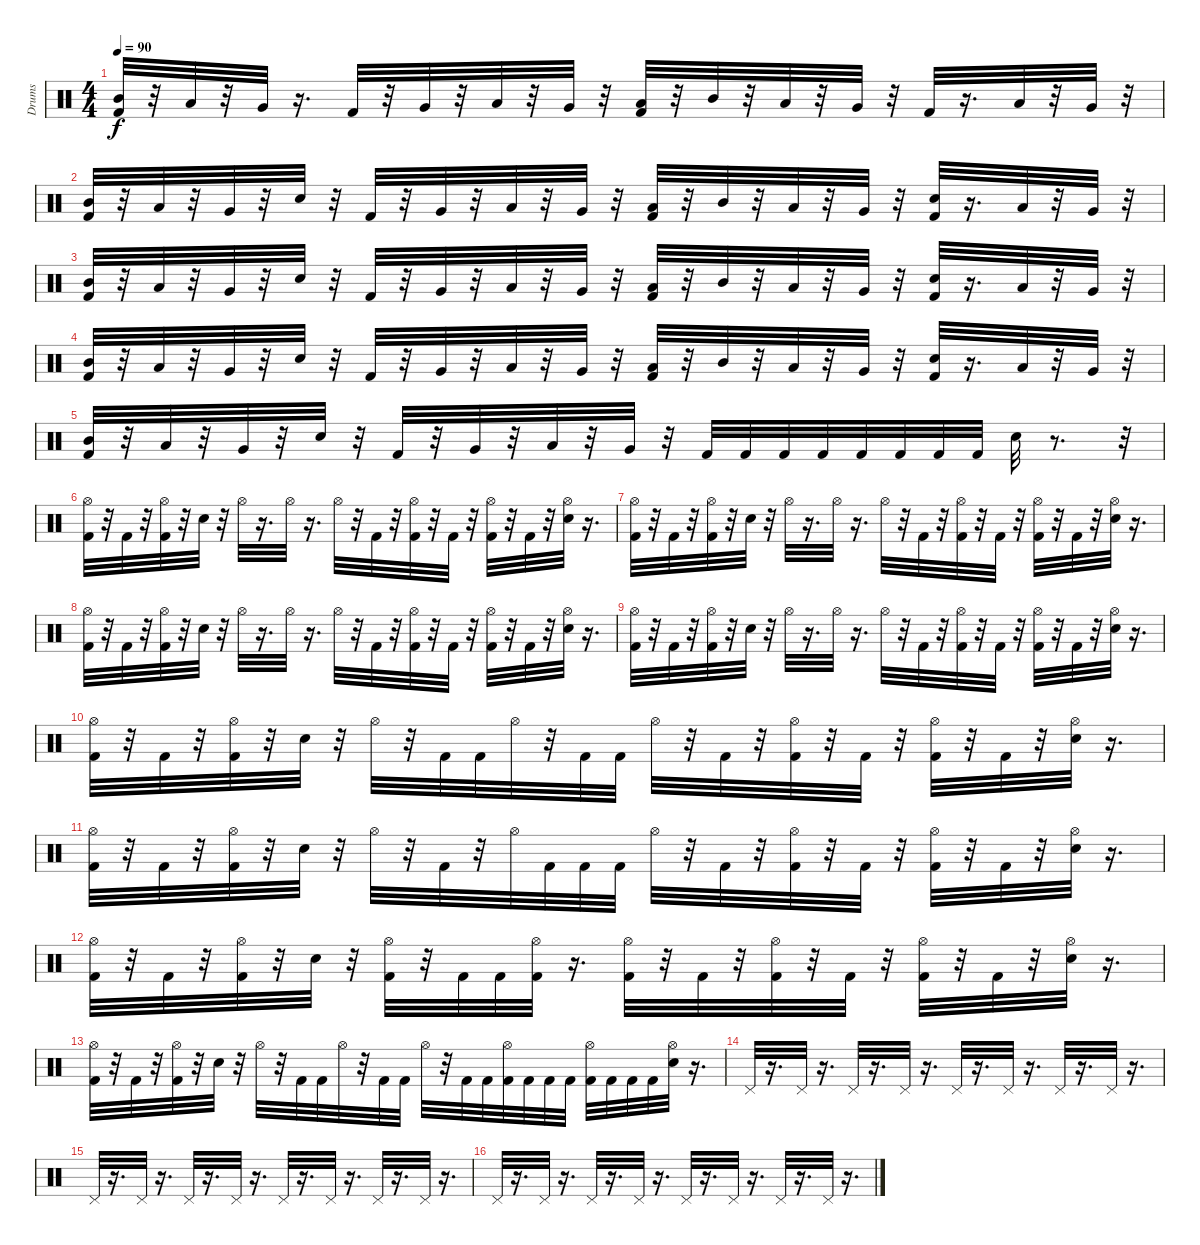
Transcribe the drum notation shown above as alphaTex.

\track ("Drums" "Drums") {instrument percussion}
\staff {score}
\articulation defaults
\ts (4 4)
\tempo 90
\clef neutral
\ks c
("Kick (hit) 2" "Mid Tom (hit)").32{dy f} r.32 "Low Tom (hit)".32 r.32 "Very Low Tom (hit)".32 r.16{d} "Kick (hit) 2".32 r.32 "Very Low Tom (hit)".32 r.32 "Low Tom (hit)".32 r.32 "Very Low Tom (hit)".32 r.32 ("Kick (hit) 2" "Low Tom (hit)").32 r.32 "Mid Tom (hit)".32 r.32 "Low Floor Tom (hit)".32 r.32 "Very Low Tom (hit)".32 r.32 "Kick (hit) 2".32 r.16{d} "Low Floor Tom (hit)".32 r.32 "Very Low Tom (hit)".32 r.32 |
("Kick (hit) 2" "Mid Tom (hit)").32 r.32 "Low Tom (hit)".32 r.32 "Very Low Tom (hit)".32 r.32 "Snare (hit) 2".32 r.32 "Kick (hit) 2".32 r.32 "Very Low Tom (hit)".32 r.32 "Low Tom (hit)".32 r.32 "Very Low Tom (hit)".32 r.32 ("Kick (hit) 2" "Low Tom (hit)").32 r.32 "Mid Tom (hit)".32 r.32 "Low Floor Tom (hit)".32 r.32 "Very Low Tom (hit)".32 r.32 ("Kick (hit) 2" "Snare (hit) 2").32 r.16{d} "Low Floor Tom (hit)".32 r.32 "Very Low Tom (hit)".32 r.32 |
("Kick (hit) 2" "Mid Tom (hit)").32 r.32 "Low Tom (hit)".32 r.32 "Very Low Tom (hit)".32 r.32 "Snare (hit) 2".32 r.32 "Kick (hit) 2".32 r.32 "Very Low Tom (hit)".32 r.32 "Low Tom (hit)".32 r.32 "Very Low Tom (hit)".32 r.32 ("Kick (hit) 2" "Low Tom (hit)").32 r.32 "Mid Tom (hit)".32 r.32 "Low Floor Tom (hit)".32 r.32 "Very Low Tom (hit)".32 r.32 ("Kick (hit) 2" "Snare (hit) 2").32 r.16{d} "Low Floor Tom (hit)".32 r.32 "Very Low Tom (hit)".32 r.32 |
("Kick (hit) 2" "Mid Tom (hit)").32 r.32 "Low Tom (hit)".32 r.32 "Very Low Tom (hit)".32 r.32 "Snare (hit) 2".32 r.32 "Kick (hit) 2".32 r.32 "Very Low Tom (hit)".32 r.32 "Low Tom (hit)".32 r.32 "Very Low Tom (hit)".32 r.32 ("Kick (hit) 2" "Low Tom (hit)").32 r.32 "Mid Tom (hit)".32 r.32 "Low Floor Tom (hit)".32 r.32 "Very Low Tom (hit)".32 r.32 ("Kick (hit) 2" "Snare (hit) 2").32 r.16{d} "Low Floor Tom (hit)".32 r.32 "Very Low Tom (hit)".32 r.32 |
("Kick (hit) 2" "Mid Tom (hit)").32 r.32 "Low Tom (hit)".32 r.32 "Very Low Tom (hit)".32 r.32 "Snare (hit) 2".32 r.32 "Kick (hit) 2".32 r.32 "Very Low Tom (hit)".32 r.32 "Low Tom (hit)".32 r.32 "Very Low Tom (hit)".32 r.32 "Kick (hit) 2".32 "Kick (hit) 2".32 "Kick (hit) 2".32 "Kick (hit) 2".32 "Kick (hit) 2".32 "Kick (hit) 2".32 "Kick (hit) 2".32 "Kick (hit) 2".32 "Electric Snare (hit)".32 r.8{d} r.32 |
("Kick (hit) 2" "Hi-Hat (open)").32 r.32 "Kick (hit) 2".32 r.32 ("Kick (hit) 2" "Hi-Hat (open)").32 r.32 "Snare (hit) 2".32 r.32 "Hi-Hat (open)".32 r.16{d} "Hi-Hat (open)".32 r.16{d} "Hi-Hat (open)".32 r.32 "Kick (hit) 2".32 r.32 ("Kick (hit) 2" "Hi-Hat (open)").32 r.32 "Kick (hit) 2".32 r.32 ("Kick (hit) 2" "Hi-Hat (open)").32 r.32 "Kick (hit) 2".32 r.32 ("Snare (hit) 2" "Hi-Hat (open)").32 r.16{d} |
("Kick (hit) 2" "Hi-Hat (open)").32 r.32 "Kick (hit) 2".32 r.32 ("Kick (hit) 2" "Hi-Hat (open)").32 r.32 "Snare (hit) 2".32 r.32 "Hi-Hat (open)".32 r.16{d} "Hi-Hat (open)".32 r.16{d} "Hi-Hat (open)".32 r.32 "Kick (hit) 2".32 r.32 ("Kick (hit) 2" "Hi-Hat (open)").32 r.32 "Kick (hit) 2".32 r.32 ("Kick (hit) 2" "Hi-Hat (open)").32 r.32 "Kick (hit) 2".32 r.32 ("Snare (hit) 2" "Hi-Hat (open)").32 r.16{d} |
("Kick (hit) 2" "Hi-Hat (open)").32 r.32 "Kick (hit) 2".32 r.32 ("Kick (hit) 2" "Hi-Hat (open)").32 r.32 "Snare (hit) 2".32 r.32 "Hi-Hat (open)".32 r.16{d} "Hi-Hat (open)".32 r.16{d} "Hi-Hat (open)".32 r.32 "Kick (hit) 2".32 r.32 ("Kick (hit) 2" "Hi-Hat (open)").32 r.32 "Kick (hit) 2".32 r.32 ("Kick (hit) 2" "Hi-Hat (open)").32 r.32 "Kick (hit) 2".32 r.32 ("Snare (hit) 2" "Hi-Hat (open)").32 r.16{d} |
("Kick (hit) 2" "Hi-Hat (open)").32 r.32 "Kick (hit) 2".32 r.32 ("Kick (hit) 2" "Hi-Hat (open)").32 r.32 "Snare (hit) 2".32 r.32 "Hi-Hat (open)".32 r.16{d} "Hi-Hat (open)".32 r.16{d} "Hi-Hat (open)".32 r.32 "Kick (hit) 2".32 r.32 ("Kick (hit) 2" "Hi-Hat (open)").32 r.32 "Kick (hit) 2".32 r.32 ("Kick (hit) 2" "Hi-Hat (open)").32 r.32 "Kick (hit) 2".32 r.32 ("Snare (hit) 2" "Hi-Hat (open)").32 r.16{d} |
("Kick (hit) 2" "Hi-Hat (open)").32 r.32 "Kick (hit) 2".32 r.32 ("Kick (hit) 2" "Hi-Hat (open)").32 r.32 "Snare (hit) 2".32 r.32 "Hi-Hat (open)".32 r.32 "Kick (hit) 2".32 "Kick (hit) 2".32 "Hi-Hat (open)".32 r.32 "Kick (hit) 2".32 "Kick (hit) 2".32 "Hi-Hat (open)".32 r.32 "Kick (hit) 2".32 r.32 ("Kick (hit) 2" "Hi-Hat (open)").32 r.32 "Kick (hit) 2".32 r.32 ("Kick (hit) 2" "Hi-Hat (open)").32 r.32 "Kick (hit) 2".32 r.32 ("Snare (hit) 2" "Hi-Hat (open)").32 r.16{d} |
("Kick (hit) 2" "Hi-Hat (open)").32 r.32 "Kick (hit) 2".32 r.32 ("Kick (hit) 2" "Hi-Hat (open)").32 r.32 "Snare (hit) 2".32 r.32 "Hi-Hat (open)".32 r.32 "Kick (hit) 2".32 r.32 "Hi-Hat (open)".32 "Kick (hit) 2".32 "Kick (hit) 2".32 "Kick (hit) 2".32 "Hi-Hat (open)".32 r.32 "Kick (hit) 2".32 r.32 ("Kick (hit) 2" "Hi-Hat (open)").32 r.32 "Kick (hit) 2".32 r.32 ("Kick (hit) 2" "Hi-Hat (open)").32 r.32 "Kick (hit) 2".32 r.32 ("Snare (hit) 2" "Hi-Hat (open)").32 r.16{d} |
("Kick (hit) 2" "Hi-Hat (open)").32 r.32 "Kick (hit) 2".32 r.32 ("Kick (hit) 2" "Hi-Hat (open)").32 r.32 "Snare (hit) 2".32 r.32 ("Kick (hit) 2" "Hi-Hat (open)").32 r.32 "Kick (hit) 2".32 "Kick (hit) 2".32 ("Kick (hit) 2" "Hi-Hat (open)").32 r.16{d} ("Kick (hit) 2" "Hi-Hat (open)").32 r.32 "Kick (hit) 2".32 r.32 ("Kick (hit) 2" "Hi-Hat (open)").32 r.32 "Kick (hit) 2".32 r.32 ("Kick (hit) 2" "Hi-Hat (open)").32 r.32 "Kick (hit) 2".32 r.32 ("Snare (hit) 2" "Hi-Hat (open)").32 r.16{d} |
("Kick (hit) 2" "Hi-Hat (open)").32 r.32 "Kick (hit) 2".32 r.32 ("Kick (hit) 2" "Hi-Hat (open)").32 r.32 "Snare (hit) 2".32 r.32 "Hi-Hat (open)".32 r.32 "Kick (hit) 2".32 "Kick (hit) 2".32 "Hi-Hat (open)".32 r.32 "Kick (hit) 2".32 "Kick (hit) 2".32 "Hi-Hat (open)".32 r.32 "Kick (hit) 2".32 "Kick (hit) 2".32 ("Kick (hit) 2" "Hi-Hat (open)").32 "Kick (hit) 2".32 "Kick (hit) 2".32 "Kick (hit) 2".32 ("Kick (hit) 2" "Hi-Hat (open)").32 "Kick (hit) 2".32 "Kick (hit) 2".32 "Kick (hit) 2".32 ("Snare (hit) 2" "Hi-Hat (open)").32 r.16{d} |
"Pedal Hi-Hat (hit)".32 r.16{d} "Pedal Hi-Hat (hit)".32 r.16{d} "Pedal Hi-Hat (hit)".32 r.16{d} "Pedal Hi-Hat (hit)".32 r.16{d} "Pedal Hi-Hat (hit)".32 r.16{d} "Pedal Hi-Hat (hit)".32 r.16{d} "Pedal Hi-Hat (hit)".32 r.16{d} "Pedal Hi-Hat (hit)".32 r.16{d} |
"Pedal Hi-Hat (hit)".32 r.16{d} "Pedal Hi-Hat (hit)".32 r.16{d} "Pedal Hi-Hat (hit)".32 r.16{d} "Pedal Hi-Hat (hit)".32 r.16{d} "Pedal Hi-Hat (hit)".32 r.16{d} "Pedal Hi-Hat (hit)".32 r.16{d} "Pedal Hi-Hat (hit)".32 r.16{d} "Pedal Hi-Hat (hit)".32 r.16{d} |
"Pedal Hi-Hat (hit)".32 r.16{d} "Pedal Hi-Hat (hit)".32 r.16{d} "Pedal Hi-Hat (hit)".32 r.16{d} "Pedal Hi-Hat (hit)".32 r.16{d} "Pedal Hi-Hat (hit)".32 r.16{d} "Pedal Hi-Hat (hit)".32 r.16{d} "Pedal Hi-Hat (hit)".32 r.16{d} "Pedal Hi-Hat (hit)".32 r.16{d}
